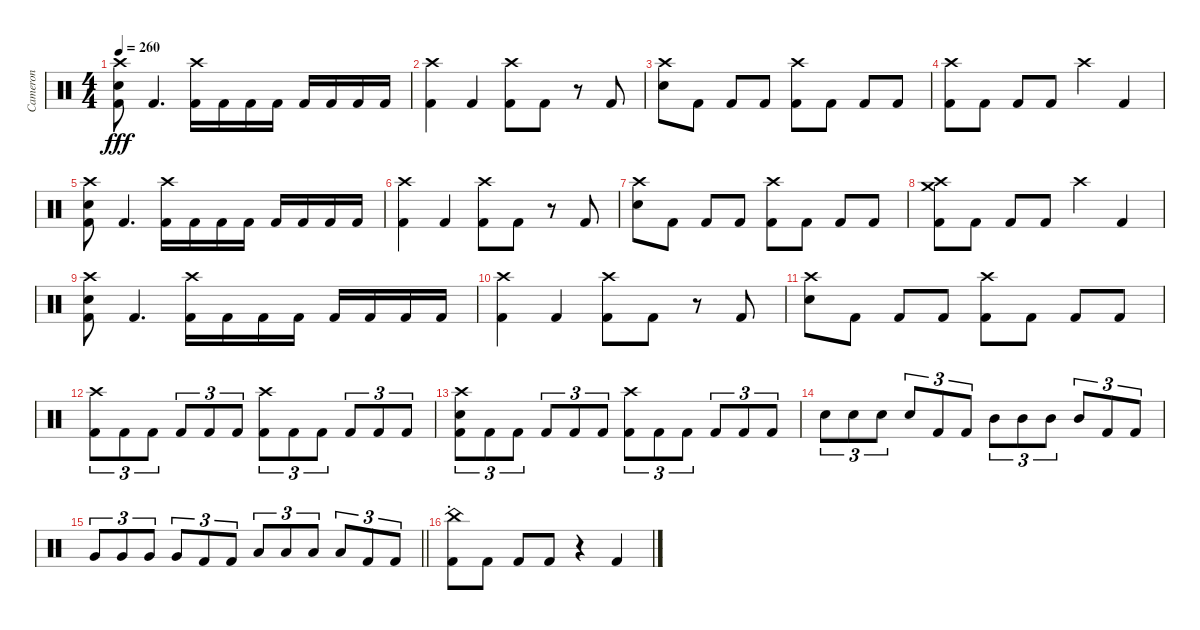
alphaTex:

\track ("Cameron" "Cameron") {instrument percussion}
\staff {score}
\articulation defaults
\ts (4 4)
\tempo 260
\clef neutral
\ks c
("Crash high (hit)" "Electric Snare (hit)" "Kick (hit) 2").8{dy fff} "Kick (hit) 2".4{d} ("Crash high (hit)" "Kick (hit) 2").16 "Kick (hit) 2".16 "Kick (hit) 2".16 "Kick (hit) 2".16 "Kick (hit) 2".16 "Kick (hit) 2".16 "Kick (hit) 2".16 "Kick (hit) 2".16 |
("Crash high (hit)" "Kick (hit) 2").4 "Kick (hit) 2".4 ("Crash high (hit)" "Kick (hit) 2").8 "Kick (hit) 2".8 r.8 "Kick (hit) 2".8 |
("Crash high (hit)" "Electric Snare (hit)").8 "Kick (hit) 2".8 "Kick (hit) 2".8 "Kick (hit) 2".8 ("Crash high (hit)" "Kick (hit) 2").8 "Kick (hit) 2".8 "Kick (hit) 2".8 "Kick (hit) 2".8 |
("Crash high (hit)" "Kick (hit) 2").8 "Kick (hit) 2".8 "Kick (hit) 2".8 "Kick (hit) 2".8 "Crash high (hit)".4 "Kick (hit) 2".4 |
("Crash high (hit)" "Electric Snare (hit)" "Kick (hit) 2").8 "Kick (hit) 2".4{d} ("Crash high (hit)" "Kick (hit) 2").16 "Kick (hit) 2".16 "Kick (hit) 2".16 "Kick (hit) 2".16 "Kick (hit) 2".16 "Kick (hit) 2".16 "Kick (hit) 2".16 "Kick (hit) 2".16 |
("Crash high (hit)" "Kick (hit) 2").4 "Kick (hit) 2".4 ("Crash high (hit)" "Kick (hit) 2").8 "Kick (hit) 2".8 r.8 "Kick (hit) 2".8 |
("Crash high (hit)" "Electric Snare (hit)").8 "Kick (hit) 2".8 "Kick (hit) 2".8 "Kick (hit) 2".8 ("Crash high (hit)" "Kick (hit) 2").8 "Kick (hit) 2".8 "Kick (hit) 2".8 "Kick (hit) 2".8 |
("Crash high (hit)" "Crash medium (hit)" "Kick (hit) 2").8 "Kick (hit) 2".8 "Kick (hit) 2".8 "Kick (hit) 2".8 "Crash high (hit)".4 "Kick (hit) 2".4 |
("Crash high (hit)" "Electric Snare (hit)" "Kick (hit) 2").8 "Kick (hit) 2".4{d} ("Crash high (hit)" "Kick (hit) 2").16 "Kick (hit) 2".16 "Kick (hit) 2".16 "Kick (hit) 2".16 "Kick (hit) 2".16 "Kick (hit) 2".16 "Kick (hit) 2".16 "Kick (hit) 2".16 |
("Crash high (hit)" "Kick (hit) 2").4 "Kick (hit) 2".4 ("Crash high (hit)" "Kick (hit) 2").8 "Kick (hit) 2".8 r.8 "Kick (hit) 2".8 |
("Crash high (hit)" "Electric Snare (hit)").8 "Kick (hit) 2".8 "Kick (hit) 2".8 "Kick (hit) 2".8 ("Crash high (hit)" "Kick (hit) 2").8 "Kick (hit) 2".8 "Kick (hit) 2".8 "Kick (hit) 2".8 |
("Crash high (hit)" "Kick (hit) 2").8{tu (3 2)} "Kick (hit) 2".8{tu (3 2)} "Kick (hit) 2".8{tu (3 2)} "Kick (hit) 2".8{tu (3 2)} "Kick (hit) 2".8{tu (3 2)} "Kick (hit) 2".8{tu (3 2)} ("Crash high (hit)" "Kick (hit) 2").8{tu (3 2)} "Kick (hit) 2".8{tu (3 2)} "Kick (hit) 2".8{tu (3 2)} "Kick (hit) 2".8{tu (3 2)} "Kick (hit) 2".8{tu (3 2)} "Kick (hit) 2".8{tu (3 2)} |
("Crash high (hit)" "Electric Snare (hit)" "Kick (hit) 2").8{tu (3 2)} "Kick (hit) 2".8{tu (3 2)} "Kick (hit) 2".8{tu (3 2)} "Kick (hit) 2".8{tu (3 2)} "Kick (hit) 2".8{tu (3 2)} "Kick (hit) 2".8{tu (3 2)} ("Crash high (hit)" "Kick (hit) 2").8{tu (3 2)} "Kick (hit) 2".8{tu (3 2)} "Kick (hit) 2".8{tu (3 2)} "Kick (hit) 2".8{tu (3 2)} "Kick (hit) 2".8{tu (3 2)} "Kick (hit) 2".8{tu (3 2)} |
"Electric Snare (hit)".8{tu (3 2)} "Electric Snare (hit)".8{tu (3 2)} "Electric Snare (hit)".8{tu (3 2)} "Electric Snare (hit)".8{tu (3 2)} "Kick (hit) 2".8{tu (3 2)} "Kick (hit) 2".8{tu (3 2)} "Mid Tom (hit)".8{tu (3 2)} "Mid Tom (hit)".8{tu (3 2)} "Mid Tom (hit)".8{tu (3 2)} "Mid Tom (hit)".8{tu (3 2)} "Kick (hit) 2".8{tu (3 2)} "Kick (hit) 2".8{tu (3 2)} |
\barLineRight lightlight "Very Low Tom (hit)".8{tu (3 2)} "Very Low Tom (hit)".8{tu (3 2)} "Very Low Tom (hit)".8{tu (3 2)} "Very Low Tom (hit)".8{tu (3 2)} "Kick (hit) 2".8{tu (3 2)} "Kick (hit) 2".8{tu (3 2)} "Low Floor Tom (hit)".8{tu (3 2)} "Low Floor Tom (hit)".8{tu (3 2)} "Low Floor Tom (hit)".8{tu (3 2)} "Low Floor Tom (hit)".8{tu (3 2)} "Kick (hit) 2".8{tu (3 2)} "Kick (hit) 2".8{tu (3 2)}
|
\section ("" ".")
("China (hit)" "Kick (hit) 2").8 "Kick (hit) 2".8 "Kick (hit) 2".8 "Kick (hit) 2".8 r.4 "Kick (hit) 2".4
